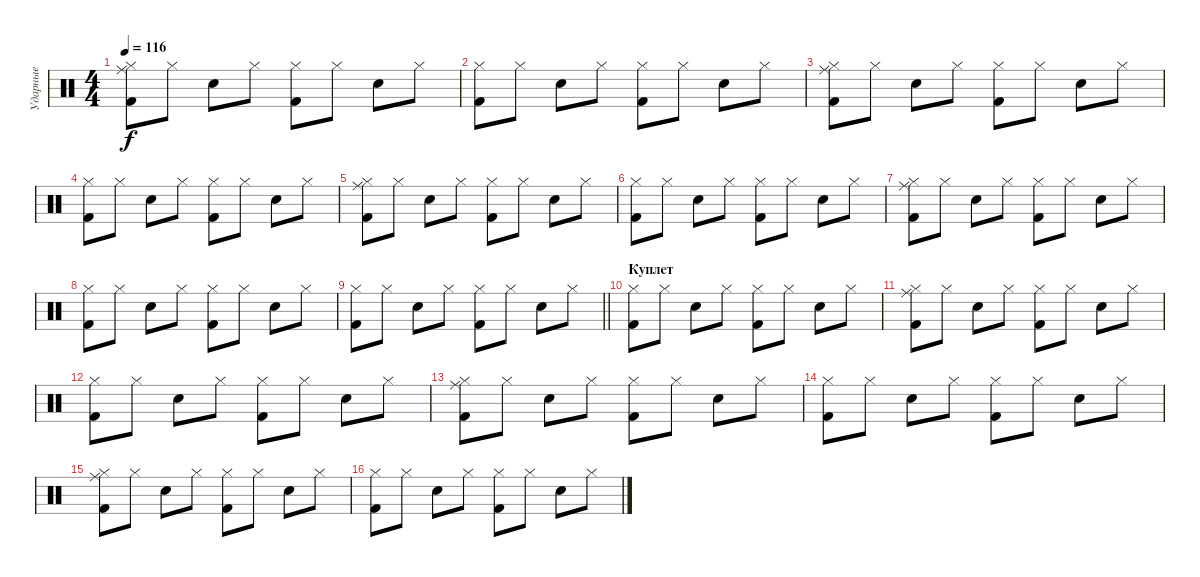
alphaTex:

\track ("Ударные" "Ударные") {instrument percussion}
\staff {score}
\articulation defaults
\ts (4 4)
\tempo 116
\clef neutral
\ks c
("Hi-Hat (closed)" "Kick (hit) 2" "Ride (middle)").8{dy f} "Hi-Hat (closed)".8 "Snare (hit) 2".8 "Hi-Hat (closed)".8 ("Hi-Hat (closed)" "Kick (hit) 2").8 "Hi-Hat (closed)".8 "Snare (hit) 2".8 "Hi-Hat (closed)".8 |
("Hi-Hat (closed)" "Kick (hit) 2").8 "Hi-Hat (closed)".8 "Snare (hit) 2".8 "Hi-Hat (closed)".8 ("Hi-Hat (closed)" "Kick (hit) 2").8 "Hi-Hat (closed)".8 "Snare (hit) 2".8 "Hi-Hat (closed)".8 |
("Hi-Hat (closed)" "Kick (hit) 2" "Ride (middle)").8 "Hi-Hat (closed)".8 "Snare (hit) 2".8 "Hi-Hat (closed)".8 ("Hi-Hat (closed)" "Kick (hit) 2").8 "Hi-Hat (closed)".8 "Snare (hit) 2".8 "Hi-Hat (closed)".8 |
("Hi-Hat (closed)" "Kick (hit) 2").8 "Hi-Hat (closed)".8 "Snare (hit) 2".8 "Hi-Hat (closed)".8 ("Hi-Hat (closed)" "Kick (hit) 2").8 "Hi-Hat (closed)".8 "Snare (hit) 2".8 "Hi-Hat (closed)".8 |
("Hi-Hat (closed)" "Kick (hit) 2" "Ride (middle)").8 "Hi-Hat (closed)".8 "Snare (hit) 2".8 "Hi-Hat (closed)".8 ("Hi-Hat (closed)" "Kick (hit) 2").8 "Hi-Hat (closed)".8 "Snare (hit) 2".8 "Hi-Hat (closed)".8 |
("Hi-Hat (closed)" "Kick (hit) 2").8 "Hi-Hat (closed)".8 "Snare (hit) 2".8 "Hi-Hat (closed)".8 ("Hi-Hat (closed)" "Kick (hit) 2").8 "Hi-Hat (closed)".8 "Snare (hit) 2".8 "Hi-Hat (closed)".8 |
("Hi-Hat (closed)" "Kick (hit) 2" "Ride (middle)").8 "Hi-Hat (closed)".8 "Snare (hit) 2".8 "Hi-Hat (closed)".8 ("Hi-Hat (closed)" "Kick (hit) 2").8 "Hi-Hat (closed)".8 "Snare (hit) 2".8 "Hi-Hat (closed)".8 |
("Hi-Hat (closed)" "Kick (hit) 2").8 "Hi-Hat (closed)".8 "Snare (hit) 2".8 "Hi-Hat (closed)".8 ("Hi-Hat (closed)" "Kick (hit) 2").8 "Hi-Hat (closed)".8 "Snare (hit) 2".8 "Hi-Hat (closed)".8 |
\barLineRight lightlight
("Hi-Hat (closed)" "Kick (hit) 2").8 "Hi-Hat (closed)".8 "Snare (hit) 2".8 "Hi-Hat (closed)".8 ("Hi-Hat (closed)" "Kick (hit) 2").8 "Hi-Hat (closed)".8 "Snare (hit) 2".8 "Hi-Hat (closed)".8 |
\section ("" "Куплет")
("Hi-Hat (closed)" "Kick (hit) 2").8 "Hi-Hat (closed)".8 "Snare (hit) 2".8 "Hi-Hat (closed)".8 ("Hi-Hat (closed)" "Kick (hit) 2").8 "Hi-Hat (closed)".8 "Snare (hit) 2".8 "Hi-Hat (closed)".8 |
("Hi-Hat (closed)" "Kick (hit) 2" "Ride (middle)").8 "Hi-Hat (closed)".8 "Snare (hit) 2".8 "Hi-Hat (closed)".8 ("Hi-Hat (closed)" "Kick (hit) 2").8 "Hi-Hat (closed)".8 "Snare (hit) 2".8 "Hi-Hat (closed)".8 |
("Hi-Hat (closed)" "Kick (hit) 2").8 "Hi-Hat (closed)".8 "Snare (hit) 2".8 "Hi-Hat (closed)".8 ("Hi-Hat (closed)" "Kick (hit) 2").8 "Hi-Hat (closed)".8 "Snare (hit) 2".8 "Hi-Hat (closed)".8 |
("Hi-Hat (closed)" "Kick (hit) 2" "Ride (middle)").8 "Hi-Hat (closed)".8 "Snare (hit) 2".8 "Hi-Hat (closed)".8 ("Hi-Hat (closed)" "Kick (hit) 2").8 "Hi-Hat (closed)".8 "Snare (hit) 2".8 "Hi-Hat (closed)".8 |
("Hi-Hat (closed)" "Kick (hit) 2").8 "Hi-Hat (closed)".8 "Snare (hit) 2".8 "Hi-Hat (closed)".8 ("Hi-Hat (closed)" "Kick (hit) 2").8 "Hi-Hat (closed)".8 "Snare (hit) 2".8 "Hi-Hat (closed)".8 |
("Hi-Hat (closed)" "Kick (hit) 2" "Ride (middle)").8 "Hi-Hat (closed)".8 "Snare (hit) 2".8 "Hi-Hat (closed)".8 ("Hi-Hat (closed)" "Kick (hit) 2").8 "Hi-Hat (closed)".8 "Snare (hit) 2".8 "Hi-Hat (closed)".8 |
("Hi-Hat (closed)" "Kick (hit) 2").8 "Hi-Hat (closed)".8 "Snare (hit) 2".8 "Hi-Hat (closed)".8 ("Hi-Hat (closed)" "Kick (hit) 2").8 "Hi-Hat (closed)".8 "Snare (hit) 2".8 "Hi-Hat (closed)".8
